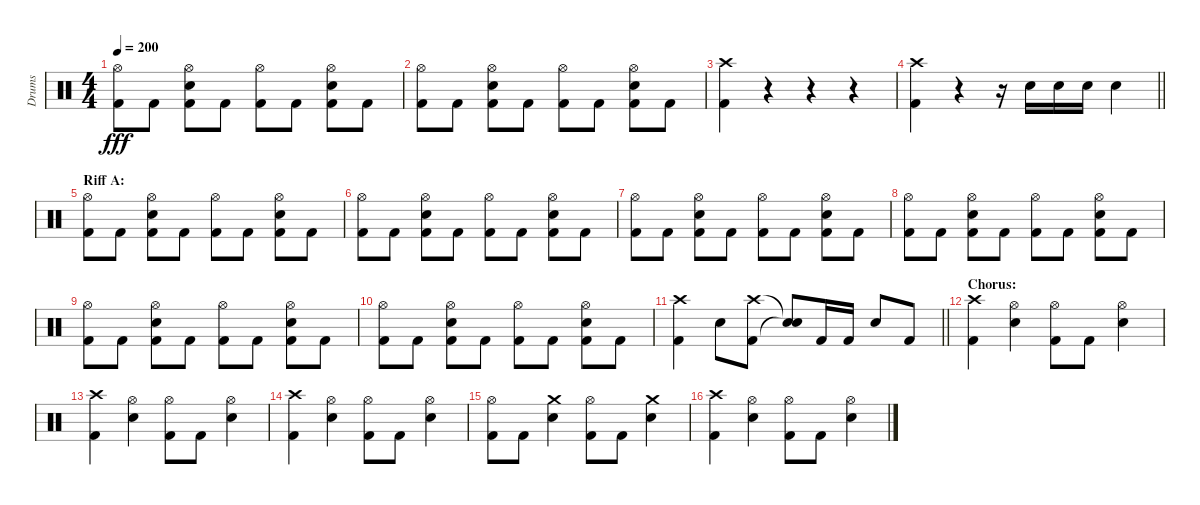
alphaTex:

\track ("Drums" "Drums") {instrument percussion}
\staff {score}
\articulation defaults
\ts (4 4)
\tempo 200
\clef neutral
\ks c
("Hi-Hat (open)" "Kick (hit) 2").8{dy fff} "Kick (hit) 2".8 ("Hi-Hat (open)" "Electric Snare (hit)" "Kick (hit) 2").8 "Kick (hit) 2".8 ("Hi-Hat (open)" "Kick (hit) 2").8 "Kick (hit) 2".8 ("Hi-Hat (open)" "Electric Snare (hit)" "Kick (hit) 2").8 "Kick (hit) 2".8 |
("Hi-Hat (open)" "Kick (hit) 2").8 "Kick (hit) 2".8 ("Hi-Hat (open)" "Electric Snare (hit)" "Kick (hit) 2").8 "Kick (hit) 2".8 ("Hi-Hat (open)" "Kick (hit) 2").8 "Kick (hit) 2".8 ("Hi-Hat (open)" "Electric Snare (hit)" "Kick (hit) 2").8 "Kick (hit) 2".8 |
("Crash high (hit)" "Kick (hit) 2").4 r.4 r.4 r.4 |
\barLineRight lightlight
("Crash high (hit)" "Kick (hit) 2").4 r.4 r.16 "Electric Snare (hit)".16 "Electric Snare (hit)".16 "Electric Snare (hit)".16 "Electric Snare (hit)".4 |
\section ("" "Riff A:")
("Hi-Hat (open)" "Kick (hit) 2").8 "Kick (hit) 2".8 ("Hi-Hat (open)" "Electric Snare (hit)" "Kick (hit) 2").8 "Kick (hit) 2".8 ("Hi-Hat (open)" "Kick (hit) 2").8 "Kick (hit) 2".8 ("Hi-Hat (open)" "Electric Snare (hit)" "Kick (hit) 2").8 "Kick (hit) 2".8 |
("Hi-Hat (open)" "Kick (hit) 2").8 "Kick (hit) 2".8 ("Hi-Hat (open)" "Electric Snare (hit)" "Kick (hit) 2").8 "Kick (hit) 2".8 ("Hi-Hat (open)" "Kick (hit) 2").8 "Kick (hit) 2".8 ("Hi-Hat (open)" "Electric Snare (hit)" "Kick (hit) 2").8 "Kick (hit) 2".8 |
("Hi-Hat (open)" "Kick (hit) 2").8 "Kick (hit) 2".8 ("Hi-Hat (open)" "Electric Snare (hit)" "Kick (hit) 2").8 "Kick (hit) 2".8 ("Hi-Hat (open)" "Kick (hit) 2").8 "Kick (hit) 2".8 ("Hi-Hat (open)" "Electric Snare (hit)" "Kick (hit) 2").8 "Kick (hit) 2".8 |
("Hi-Hat (open)" "Kick (hit) 2").8 "Kick (hit) 2".8 ("Hi-Hat (open)" "Electric Snare (hit)" "Kick (hit) 2").8 "Kick (hit) 2".8 ("Hi-Hat (open)" "Kick (hit) 2").8 "Kick (hit) 2".8 ("Hi-Hat (open)" "Electric Snare (hit)" "Kick (hit) 2").8 "Kick (hit) 2".8 |
("Hi-Hat (open)" "Kick (hit) 2").8 "Kick (hit) 2".8 ("Hi-Hat (open)" "Electric Snare (hit)" "Kick (hit) 2").8 "Kick (hit) 2".8 ("Hi-Hat (open)" "Kick (hit) 2").8 "Kick (hit) 2".8 ("Hi-Hat (open)" "Electric Snare (hit)" "Kick (hit) 2").8 "Kick (hit) 2".8 |
("Hi-Hat (open)" "Kick (hit) 2").8 "Kick (hit) 2".8 ("Hi-Hat (open)" "Electric Snare (hit)" "Kick (hit) 2").8 "Kick (hit) 2".8 ("Hi-Hat (open)" "Kick (hit) 2").8 "Kick (hit) 2".8 ("Hi-Hat (open)" "Electric Snare (hit)" "Kick (hit) 2").8 "Kick (hit) 2".8 |
\barLineRight lightlight
("Crash high (hit)" "Kick (hit) 2").4 "Electric Snare (hit)".8 ("Crash high (hit)" "Kick (hit) 2").8 ("Snare (hit)"{t} "Snare (hit)"{t}).8 "Kick (hit) 2".16 "Kick (hit) 2".16 "Electric Snare (hit)".8 "Kick (hit) 2".8 |
\section ("" "Chorus:")
("Crash high (hit)" "Kick (hit) 2").4 ("Hi-Hat (open)" "Electric Snare (hit)").4 ("Hi-Hat (open)" "Kick (hit) 2").8 "Kick (hit) 2".8 ("Hi-Hat (open)" "Electric Snare (hit)").4 |
("Crash high (hit)" "Kick (hit) 2").4 ("Hi-Hat (open)" "Electric Snare (hit)").4 ("Hi-Hat (open)" "Kick (hit) 2").8 "Kick (hit) 2".8 ("Hi-Hat (open)" "Electric Snare (hit)").4 |
("Crash high (hit)" "Kick (hit) 2").4 ("Hi-Hat (open)" "Electric Snare (hit)").4 ("Hi-Hat (open)" "Kick (hit) 2").8 "Kick (hit) 2".8 ("Hi-Hat (open)" "Electric Snare (hit)").4 |
("Hi-Hat (open)" "Kick (hit) 2").8 "Kick (hit) 2".8 ("Crash medium (hit)" "Electric Snare (hit)").4 ("Hi-Hat (open)" "Kick (hit) 2").8 "Kick (hit) 2".8 ("Crash medium (hit)" "Electric Snare (hit)").4 |
("Crash high (hit)" "Kick (hit) 2").4 ("Hi-Hat (open)" "Electric Snare (hit)").4 ("Hi-Hat (open)" "Kick (hit) 2").8 "Kick (hit) 2".8 ("Hi-Hat (open)" "Electric Snare (hit)").4
